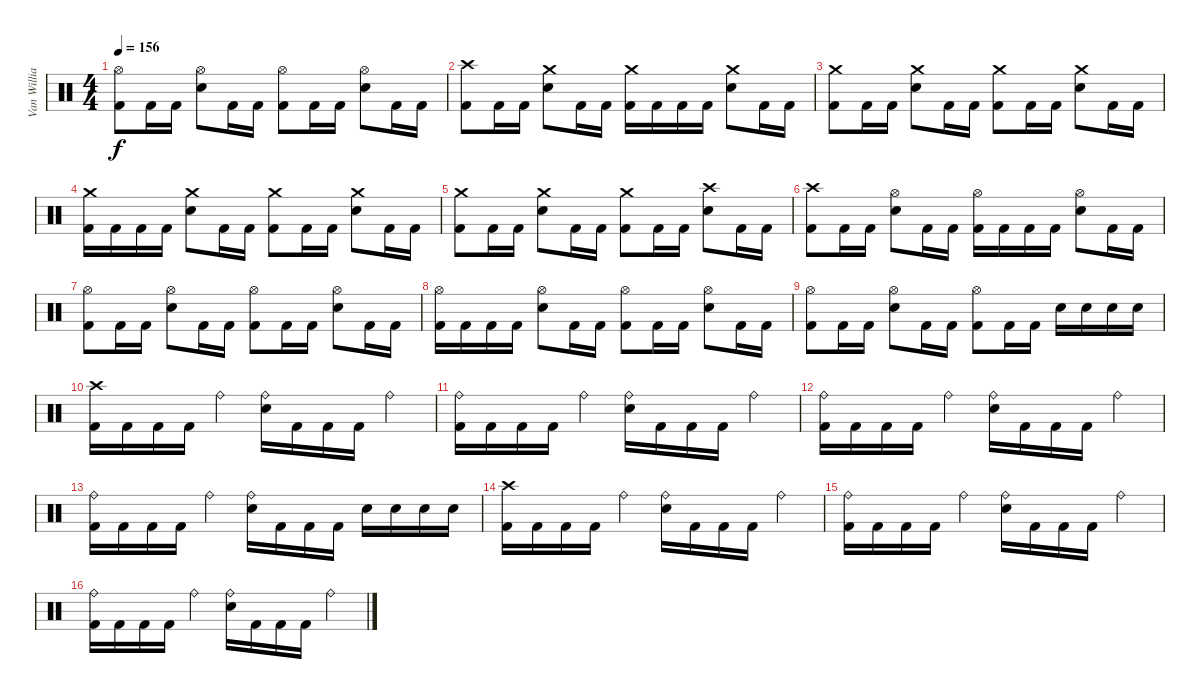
\track ("Van Williams" "Van Willia") {instrument percussion}
\staff {score}
\articulation defaults
\ts (4 4)
\tempo 156
\clef neutral
\ks c
("Hi-Hat (open)" "Kick (hit) 2").8{dy f} "Kick (hit) 2".16 "Kick (hit) 2".16 ("Hi-Hat (open)" "Electric Snare (hit)").8 "Kick (hit) 2".16 "Kick (hit) 2".16 ("Hi-Hat (open)" "Kick (hit) 2").8 "Kick (hit) 2".16 "Kick (hit) 2".16 ("Hi-Hat (open)" "Electric Snare (hit)").8 "Kick (hit) 2".16 "Kick (hit) 2".16 |
\section ("" "")
("Crash high (hit)" "Kick (hit) 2").8 "Kick (hit) 2".16 "Kick (hit) 2".16 ("Crash medium (hit)" "Electric Snare (hit)").8 "Kick (hit) 2".16 "Kick (hit) 2".16 ("Crash medium (hit)" "Kick (hit) 2").16 "Kick (hit) 2".16 "Kick (hit) 2".16 "Kick (hit) 2".16 ("Crash medium (hit)" "Electric Snare (hit)").8 "Kick (hit) 2".16 "Kick (hit) 2".16 |
("Crash medium (hit)" "Kick (hit) 2").8 "Kick (hit) 2".16 "Kick (hit) 2".16 ("Crash medium (hit)" "Electric Snare (hit)").8 "Kick (hit) 2".16 "Kick (hit) 2".16 ("Crash medium (hit)" "Kick (hit) 2").8 "Kick (hit) 2".16 "Kick (hit) 2".16 ("Crash medium (hit)" "Electric Snare (hit)").8 "Kick (hit) 2".16 "Kick (hit) 2".16 |
("Crash medium (hit)" "Kick (hit) 2").16 "Kick (hit) 2".16 "Kick (hit) 2".16 "Kick (hit) 2".16 ("Crash medium (hit)" "Electric Snare (hit)").8 "Kick (hit) 2".16 "Kick (hit) 2".16 ("Crash medium (hit)" "Kick (hit) 2").8 "Kick (hit) 2".16 "Kick (hit) 2".16 ("Crash medium (hit)" "Electric Snare (hit)").8 "Kick (hit) 2".16 "Kick (hit) 2".16 |
("Crash medium (hit)" "Kick (hit) 2").8 "Kick (hit) 2".16 "Kick (hit) 2".16 ("Crash medium (hit)" "Electric Snare (hit)").8 "Kick (hit) 2".16 "Kick (hit) 2".16 ("Crash medium (hit)" "Kick (hit) 2").8 "Kick (hit) 2".16 "Kick (hit) 2".16 ("Crash high (hit)" "Electric Snare (hit)").8 "Kick (hit) 2".16 "Kick (hit) 2".16 |
("Crash high (hit)" "Kick (hit) 2").8 "Kick (hit) 2".16 "Kick (hit) 2".16 ("Hi-Hat (open)" "Electric Snare (hit)").8 "Kick (hit) 2".16 "Kick (hit) 2".16 ("Hi-Hat (open)" "Kick (hit) 2").16 "Kick (hit) 2".16 "Kick (hit) 2".16 "Kick (hit) 2".16 ("Hi-Hat (open)" "Electric Snare (hit)").8 "Kick (hit) 2".16 "Kick (hit) 2".16 |
("Hi-Hat (open)" "Kick (hit) 2").8 "Kick (hit) 2".16 "Kick (hit) 2".16 ("Hi-Hat (open)" "Electric Snare (hit)").8 "Kick (hit) 2".16 "Kick (hit) 2".16 ("Hi-Hat (open)" "Kick (hit) 2").8 "Kick (hit) 2".16 "Kick (hit) 2".16 ("Hi-Hat (open)" "Electric Snare (hit)").8 "Kick (hit) 2".16 "Kick (hit) 2".16 |
("Hi-Hat (open)" "Kick (hit) 2").16 "Kick (hit) 2".16 "Kick (hit) 2".16 "Kick (hit) 2".16 ("Hi-Hat (open)" "Electric Snare (hit)").8 "Kick (hit) 2".16 "Kick (hit) 2".16 ("Hi-Hat (open)" "Kick (hit) 2").8 "Kick (hit) 2".16 "Kick (hit) 2".16 ("Hi-Hat (open)" "Electric Snare (hit)").8 "Kick (hit) 2".16 "Kick (hit) 2".16 |
("Hi-Hat (open)" "Kick (hit) 2").8 "Kick (hit) 2".16 "Kick (hit) 2".16 ("Hi-Hat (open)" "Electric Snare (hit)").8 "Kick (hit) 2".16 "Kick (hit) 2".16 ("Hi-Hat (open)" "Kick (hit) 2").8 "Kick (hit) 2".16 "Kick (hit) 2".16 "Electric Snare (hit)".16 "Electric Snare (hit)".16 "Electric Snare (hit)".16 "Electric Snare (hit)".16 |
\section ("" "")
("Crash high (hit)" "Kick (hit) 2").16 "Kick (hit) 2".16 "Kick (hit) 2".16 "Kick (hit) 2".16 "Ride (bell)".4 ("Ride (bell)" "Electric Snare (hit)").16 "Kick (hit) 2".16 "Kick (hit) 2".16 "Kick (hit) 2".16 "Ride (bell)".4 |
("Ride (bell)" "Kick (hit) 2").16 "Kick (hit) 2".16 "Kick (hit) 2".16 "Kick (hit) 2".16 "Ride (bell)".4 ("Ride (bell)" "Electric Snare (hit)").16 "Kick (hit) 2".16 "Kick (hit) 2".16 "Kick (hit) 2".16 "Ride (bell)".4 |
("Ride (bell)" "Kick (hit) 2").16 "Kick (hit) 2".16 "Kick (hit) 2".16 "Kick (hit) 2".16 "Ride (bell)".4 ("Ride (bell)" "Electric Snare (hit)").16 "Kick (hit) 2".16 "Kick (hit) 2".16 "Kick (hit) 2".16 "Ride (bell)".4 |
("Ride (bell)" "Kick (hit) 2").16 "Kick (hit) 2".16 "Kick (hit) 2".16 "Kick (hit) 2".16 "Ride (bell)".4 ("Ride (bell)" "Electric Snare (hit)").16 "Kick (hit) 2".16 "Kick (hit) 2".16 "Kick (hit) 2".16 "Electric Snare (hit)".16 "Electric Snare (hit)".16 "Electric Snare (hit)".16 "Electric Snare (hit)".16 |
("Crash high (hit)" "Kick (hit) 2").16 "Kick (hit) 2".16 "Kick (hit) 2".16 "Kick (hit) 2".16 "Ride (bell)".4 ("Ride (bell)" "Electric Snare (hit)").16 "Kick (hit) 2".16 "Kick (hit) 2".16 "Kick (hit) 2".16 "Ride (bell)".4 |
("Ride (bell)" "Kick (hit) 2").16 "Kick (hit) 2".16 "Kick (hit) 2".16 "Kick (hit) 2".16 "Ride (bell)".4 ("Ride (bell)" "Electric Snare (hit)").16 "Kick (hit) 2".16 "Kick (hit) 2".16 "Kick (hit) 2".16 "Ride (bell)".4 |
("Ride (bell)" "Kick (hit) 2").16 "Kick (hit) 2".16 "Kick (hit) 2".16 "Kick (hit) 2".16 "Ride (bell)".4 ("Ride (bell)" "Electric Snare (hit)").16 "Kick (hit) 2".16 "Kick (hit) 2".16 "Kick (hit) 2".16 "Ride (bell)".4
